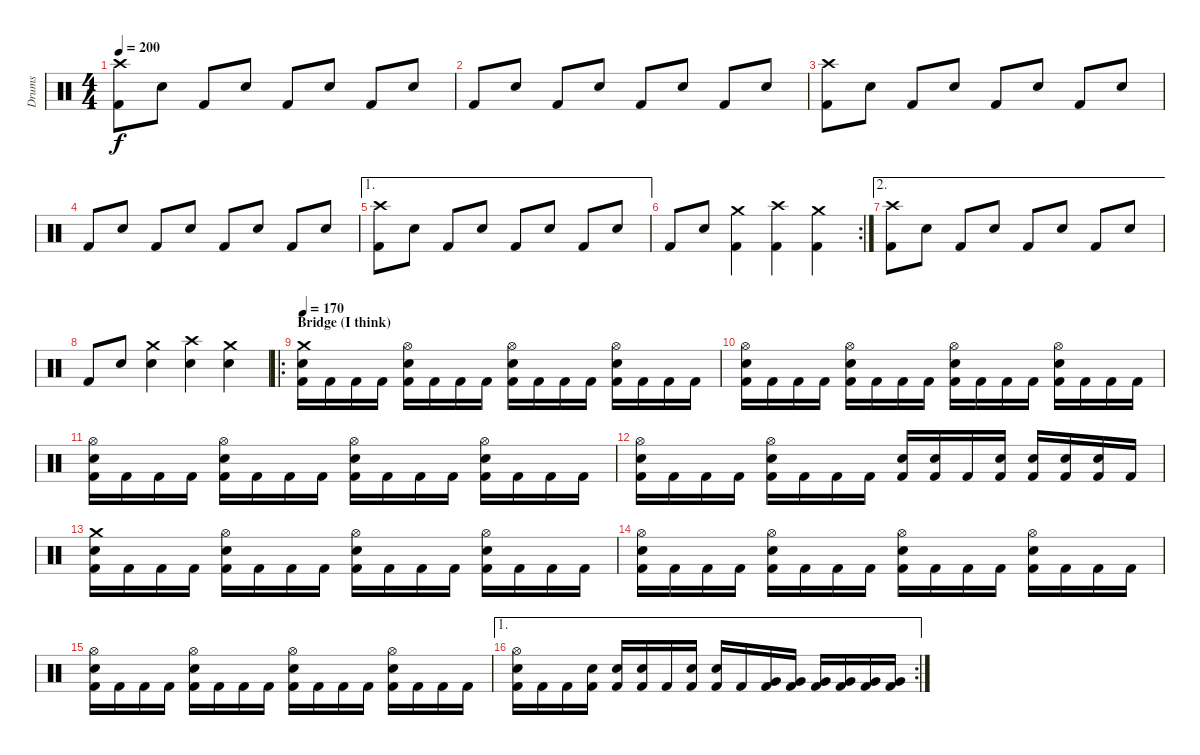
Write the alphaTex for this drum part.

\track ("Drums" "Drums") {instrument percussion}
\staff {score}
\articulation defaults
\ts (4 4)
\tempo 200
\clef neutral
\ks c
("Crash high (hit)" "Kick (hit) 2").8{dy f} "Snare (hit) 2".8 "Kick (hit) 2".8 "Snare (hit) 2".8 "Kick (hit) 2".8 "Snare (hit) 2".8 "Kick (hit) 2".8 "Snare (hit) 2".8 |
"Kick (hit) 2".8 "Snare (hit) 2".8 "Kick (hit) 2".8 "Snare (hit) 2".8 "Kick (hit) 2".8 "Snare (hit) 2".8 "Kick (hit) 2".8 "Snare (hit) 2".8 |
("Crash high (hit)" "Kick (hit) 2").8 "Snare (hit) 2".8 "Kick (hit) 2".8 "Snare (hit) 2".8 "Kick (hit) 2".8 "Snare (hit) 2".8 "Kick (hit) 2".8 "Snare (hit) 2".8 |
"Kick (hit) 2".8 "Snare (hit) 2".8 "Kick (hit) 2".8 "Snare (hit) 2".8 "Kick (hit) 2".8 "Snare (hit) 2".8 "Kick (hit) 2".8 "Snare (hit) 2".8 |
\ae 1
("Crash high (hit)" "Kick (hit) 2").8 "Snare (hit) 2".8 "Kick (hit) 2".8 "Snare (hit) 2".8 "Kick (hit) 2".8 "Snare (hit) 2".8 "Kick (hit) 2".8 "Snare (hit) 2".8 |
\rc 2 "Kick (hit) 2".8 "Snare (hit) 2".8
("Crash medium (hit)" "Kick (hit) 2").4 ("Crash high (hit)" "Kick (hit) 2").4 ("Crash medium (hit)" "Kick (hit) 2").4 |
\ae 2
("Crash high (hit)" "Kick (hit) 2").8 "Snare (hit) 2".8 "Kick (hit) 2".8 "Snare (hit) 2".8 "Kick (hit) 2".8 "Snare (hit) 2".8 "Kick (hit) 2".8 "Snare (hit) 2".8 |
"Kick (hit) 2".8 "Snare (hit) 2".8 ("Crash medium (hit)" "Snare (hit) 2").4 ("Crash high (hit)" "Snare (hit) 2").4 ("Crash medium (hit)" "Snare (hit) 2").4 |
\ro
\section ("" "Bridge (I think)")
\tempo 170
("Crash medium (hit)" "Snare (hit) 2" "Kick (hit) 2").16 "Kick (hit) 2".16 "Kick (hit) 2".16 "Kick (hit) 2".16 ("Hi-Hat (open)" "Snare (hit) 2" "Kick (hit) 2").16 "Kick (hit) 2".16 "Kick (hit) 2".16 "Kick (hit) 2".16 ("Hi-Hat (open)" "Snare (hit) 2" "Kick (hit) 2").16 "Kick (hit) 2".16 "Kick (hit) 2".16 "Kick (hit) 2".16 ("Hi-Hat (open)" "Snare (hit) 2" "Kick (hit) 2").16 "Kick (hit) 2".16 "Kick (hit) 2".16 "Kick (hit) 2".16 |
("Hi-Hat (open)" "Snare (hit) 2" "Kick (hit) 2").16 "Kick (hit) 2".16 "Kick (hit) 2".16 "Kick (hit) 2".16 ("Hi-Hat (open)" "Snare (hit) 2" "Kick (hit) 2").16 "Kick (hit) 2".16 "Kick (hit) 2".16 "Kick (hit) 2".16 ("Hi-Hat (open)" "Snare (hit) 2" "Kick (hit) 2").16 "Kick (hit) 2".16 "Kick (hit) 2".16 "Kick (hit) 2".16 ("Hi-Hat (open)" "Snare (hit) 2" "Kick (hit) 2").16 "Kick (hit) 2".16 "Kick (hit) 2".16 "Kick (hit) 2".16 |
("Hi-Hat (open)" "Snare (hit) 2" "Kick (hit) 2").16 "Kick (hit) 2".16 "Kick (hit) 2".16 "Kick (hit) 2".16 ("Hi-Hat (open)" "Snare (hit) 2" "Kick (hit) 2").16 "Kick (hit) 2".16 "Kick (hit) 2".16 "Kick (hit) 2".16 ("Hi-Hat (open)" "Snare (hit) 2" "Kick (hit) 2").16 "Kick (hit) 2".16 "Kick (hit) 2".16 "Kick (hit) 2".16 ("Hi-Hat (open)" "Snare (hit) 2" "Kick (hit) 2").16 "Kick (hit) 2".16 "Kick (hit) 2".16 "Kick (hit) 2".16 |
("Hi-Hat (open)" "Snare (hit) 2" "Kick (hit) 2").16 "Kick (hit) 2".16 "Kick (hit) 2".16 "Kick (hit) 2".16 ("Hi-Hat (open)" "Snare (hit) 2" "Kick (hit) 2").16 "Kick (hit) 2".16 "Kick (hit) 2".16 "Kick (hit) 2".16 ("Snare (hit) 2" "Kick (hit) 2").16 ("Snare (hit) 2" "Kick (hit) 2").16 "Kick (hit) 2".16 ("Snare (hit) 2" "Kick (hit) 2").16 ("Snare (hit) 2" "Kick (hit) 2").16 ("Snare (hit) 2" "Kick (hit) 2").16 ("Snare (hit) 2" "Kick (hit) 2").16 "Kick (hit) 2".16 |
("Crash medium (hit)" "Snare (hit) 2" "Kick (hit) 2").16 "Kick (hit) 2".16 "Kick (hit) 2".16 "Kick (hit) 2".16 ("Hi-Hat (open)" "Snare (hit) 2" "Kick (hit) 2").16 "Kick (hit) 2".16 "Kick (hit) 2".16 "Kick (hit) 2".16 ("Hi-Hat (open)" "Snare (hit) 2" "Kick (hit) 2").16 "Kick (hit) 2".16 "Kick (hit) 2".16 "Kick (hit) 2".16 ("Hi-Hat (open)" "Snare (hit) 2" "Kick (hit) 2").16 "Kick (hit) 2".16 "Kick (hit) 2".16 "Kick (hit) 2".16 |
("Hi-Hat (open)" "Snare (hit) 2" "Kick (hit) 2").16 "Kick (hit) 2".16 "Kick (hit) 2".16 "Kick (hit) 2".16 ("Hi-Hat (open)" "Snare (hit) 2" "Kick (hit) 2").16 "Kick (hit) 2".16 "Kick (hit) 2".16 "Kick (hit) 2".16 ("Hi-Hat (open)" "Snare (hit) 2" "Kick (hit) 2").16 "Kick (hit) 2".16 "Kick (hit) 2".16 "Kick (hit) 2".16 ("Hi-Hat (open)" "Snare (hit) 2" "Kick (hit) 2").16 "Kick (hit) 2".16 "Kick (hit) 2".16 "Kick (hit) 2".16 |
("Hi-Hat (open)" "Snare (hit) 2" "Kick (hit) 2").16 "Kick (hit) 2".16 "Kick (hit) 2".16 "Kick (hit) 2".16 ("Hi-Hat (open)" "Snare (hit) 2" "Kick (hit) 2").16 "Kick (hit) 2".16 "Kick (hit) 2".16 "Kick (hit) 2".16 ("Hi-Hat (open)" "Snare (hit) 2" "Kick (hit) 2").16 "Kick (hit) 2".16 "Kick (hit) 2".16 "Kick (hit) 2".16 ("Hi-Hat (open)" "Snare (hit) 2" "Kick (hit) 2").16 "Kick (hit) 2".16 "Kick (hit) 2".16 "Kick (hit) 2".16 |
\ae 1
\rc 2
("Hi-Hat (open)" "Snare (hit) 2" "Kick (hit) 2").16 "Kick (hit) 2".16 "Kick (hit) 2".16 ("Snare (hit) 2" "Kick (hit) 2").16 ("Snare (hit) 2" "Kick (hit) 2").16 ("Snare (hit) 2" "Kick (hit) 2").16 "Kick (hit) 2".16 ("Snare (hit) 2" "Kick (hit) 2").16 ("Snare (hit) 2" "Kick (hit) 2").16 "Kick (hit) 2".16 ("Very Low Tom (hit)" "Kick (hit) 2").16 ("Very Low Tom (hit)" "Kick (hit) 2").16 ("Very Low Tom (hit)" "Kick (hit) 2").16 ("Very Low Tom (hit)" "Kick (hit) 2").16 ("Very Low Tom (hit)" "Kick (hit) 2").16 ("Very Low Tom (hit)" "Kick (hit) 2").16
